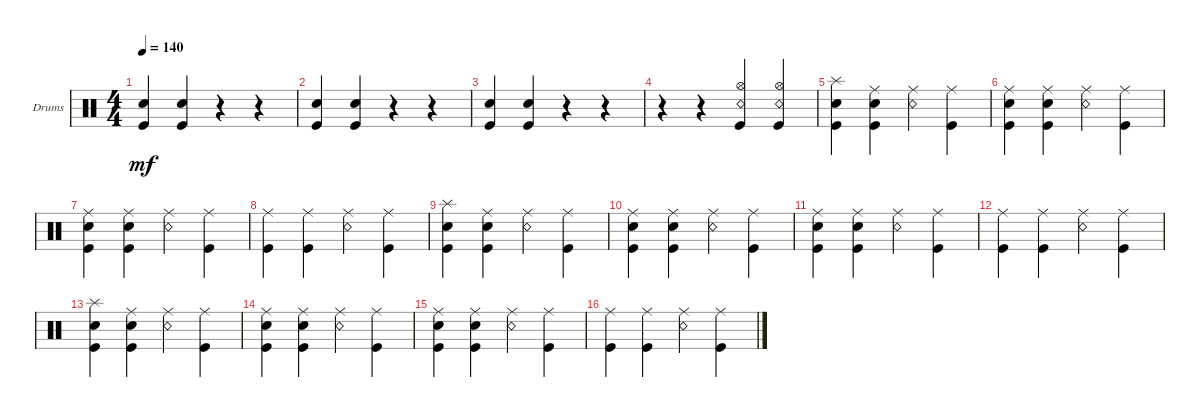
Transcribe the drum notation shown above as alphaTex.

\defaultSystemsLayout 4
\bracketExtendMode groupsimilarinstruments
\firstSystemTrackNameOrientation horizontal
\otherSystemsTrackNameOrientation horizontal
\track ("Drumkit" "Drums") {instrument percussion}
\staff {score}
\articulation defaults
\ts (4 4)
\tempo 140
\clef neutral
\scale
0.333333
\ks c
("Kick (hit)" "Snare (hit) 2").4{dy mf} ("Snare (hit) 2" "Kick (hit)").4 r.4 r.4 |
\scale
0.333333 ("Kick (hit)" "Snare (hit) 2").4 ("Snare (hit) 2" "Kick (hit)").4 r.4 r.4 |
\scale
0.333333 ("Kick (hit)" "Snare (hit) 2").4 ("Snare (hit) 2" "Kick (hit)").4 r.4 r.4 |
\scale
0.333333 r.4 r.4 ("Hi-Hat (open)" "Snare (rim shot)" "Kick (hit)").4 ("Hi-Hat (open)" "Snare (rim shot)" "Kick (hit)").4 |
("Kick (hit)" "Snare (hit) 2" "Splash (hit)").4 ("Snare (hit) 2" "Kick (hit)" "Ride (middle)").4 ("Snare (rim shot)" "Ride (middle)").4 ("Ride (middle)" "Kick (hit)").4 |
("Kick (hit)" "Snare (hit) 2" "Ride (middle)").4 ("Snare (hit) 2" "Kick (hit)" "Ride (middle)").4 ("Snare (rim shot)" "Ride (middle)").4 ("Ride (middle)" "Kick (hit)").4 |
("Kick (hit)" "Snare (hit) 2" "Ride (middle)").4 ("Snare (hit) 2" "Kick (hit)" "Ride (middle)").4 ("Snare (rim shot)" "Ride (middle)").4 ("Ride (middle)" "Kick (hit)").4 |
("Kick (hit)" "Ride (middle)").4 ("Kick (hit)" "Ride (middle)").4 ("Snare (rim shot)" "Ride (middle)").4 ("Ride (middle)" "Kick (hit)").4 |
("Kick (hit)" "Snare (hit) 2" "Splash (hit)").4 ("Snare (hit) 2" "Kick (hit)" "Ride (middle)").4 ("Snare (rim shot)" "Ride (middle)").4 ("Ride (middle)" "Kick (hit)").4 |
("Kick (hit)" "Snare (hit) 2" "Ride (middle)").4 ("Snare (hit) 2" "Kick (hit)" "Ride (middle)").4 ("Snare (rim shot)" "Ride (middle)").4 ("Ride (middle)" "Kick (hit)").4 |
("Kick (hit)" "Snare (hit) 2" "Ride (middle)").4 ("Snare (hit) 2" "Kick (hit)" "Ride (middle)").4 ("Snare (rim shot)" "Ride (middle)").4 ("Ride (middle)" "Kick (hit)").4 |
("Kick (hit)" "Ride (middle)").4 ("Kick (hit)" "Ride (middle)").4 ("Snare (rim shot)" "Ride (middle)").4 ("Ride (middle)" "Kick (hit)").4 |
("Kick (hit)" "Snare (hit) 2" "Splash (hit)").4 ("Snare (hit) 2" "Kick (hit)" "Ride (middle)").4 ("Snare (rim shot)" "Ride (middle)").4 ("Ride (middle)" "Kick (hit)").4 |
("Kick (hit)" "Snare (hit) 2" "Ride (middle)").4 ("Snare (hit) 2" "Kick (hit)" "Ride (middle)").4 ("Snare (rim shot)" "Ride (middle)").4 ("Ride (middle)" "Kick (hit)").4 |
("Kick (hit)" "Snare (hit) 2" "Ride (middle)").4 ("Snare (hit) 2" "Kick (hit)" "Ride (middle)").4 ("Snare (rim shot)" "Ride (middle)").4 ("Ride (middle)" "Kick (hit)").4 |
("Kick (hit)" "Ride (middle)").4 ("Kick (hit)" "Ride (middle)").4 ("Snare (rim shot)" "Ride (middle)").4 ("Ride (middle)" "Kick (hit)").4
